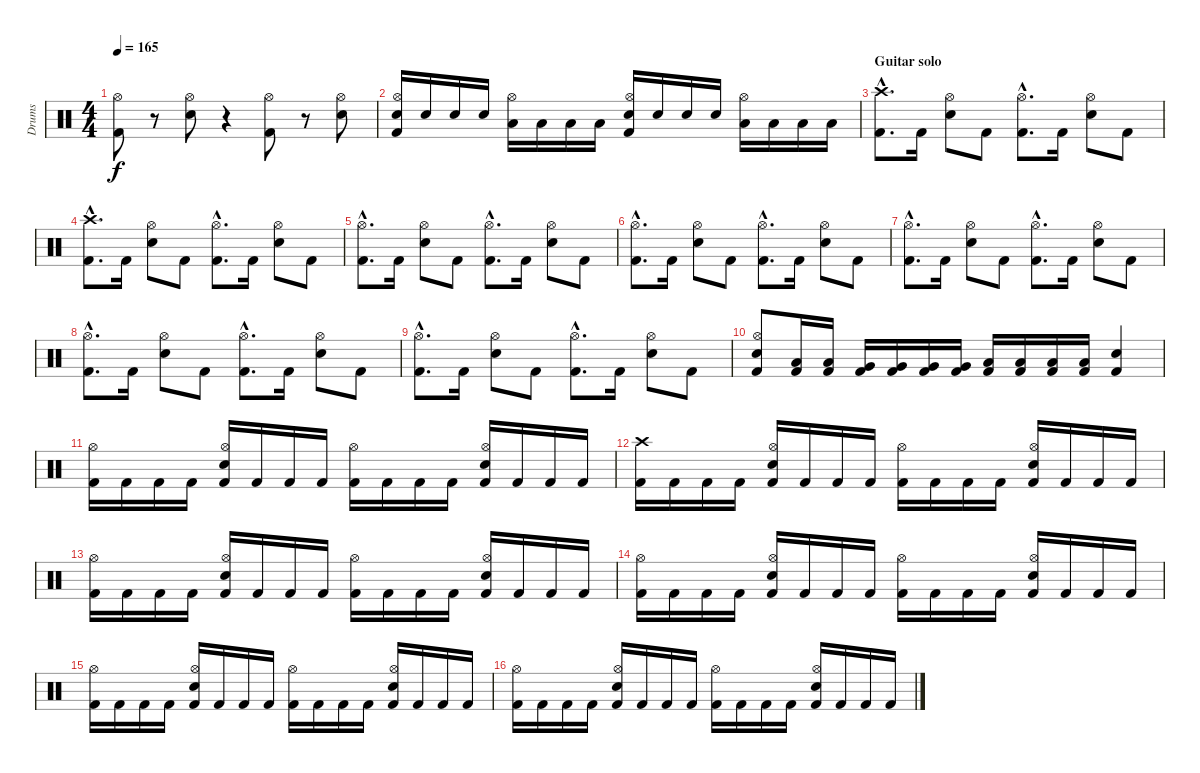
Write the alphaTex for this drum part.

\track ("Drums" "Drums") {instrument percussion}
\staff {score}
\articulation defaults
\ts (4 4)
\tempo 165
\clef neutral
\ks c
("Kick (hit) 2" "Hi-Hat (open)").8{dy f} r.8 ("Electric Snare (hit)" "Hi-Hat (open)").8 r.4 ("Kick (hit) 2" "Hi-Hat (open)").8 r.8 ("Electric Snare (hit)" "Hi-Hat (open)").8 |
("Kick (hit) 2" "Electric Snare (hit)" "Hi-Hat (open)").16 "Electric Snare (hit)".16 "Electric Snare (hit)".16 "Electric Snare (hit)".16 ("Low Tom (hit)" "Hi-Hat (open)").16 "Low Tom (hit)".16 "Low Tom (hit)".16 "Low Tom (hit)".16 ("Kick (hit) 2" "Electric Snare (hit)" "Hi-Hat (open)").16 "Electric Snare (hit)".16 "Electric Snare (hit)".16 "Electric Snare (hit)".16 ("Low Tom (hit)" "Hi-Hat (open)").16 "Low Tom (hit)".16 "Low Tom (hit)".16 "Low Tom (hit)".16 |
\section ("" "Guitar solo")
("Kick (hit) 2"{hac} "Crash high (hit)"{hac}).8{d} "Kick (hit) 2".16 ("Electric Snare (hit)" "Hi-Hat (open)").8 "Kick (hit) 2".8 ("Kick (hit) 2"{hac} "Hi-Hat (open)"{hac}).8{d} "Kick (hit) 2".16 ("Electric Snare (hit)" "Hi-Hat (open)").8 "Kick (hit) 2".8 |
("Kick (hit) 2"{hac} "Crash high (hit)"{hac}).8{d} "Kick (hit) 2".16 ("Electric Snare (hit)" "Hi-Hat (open)").8 "Kick (hit) 2".8 ("Kick (hit) 2"{hac} "Hi-Hat (open)"{hac}).8{d} "Kick (hit) 2".16 ("Electric Snare (hit)" "Hi-Hat (open)").8 "Kick (hit) 2".8 |
("Kick (hit) 2"{hac} "Hi-Hat (open)"{hac}).8{d} "Kick (hit) 2".16 ("Electric Snare (hit)" "Hi-Hat (open)").8 "Kick (hit) 2".8 ("Kick (hit) 2"{hac} "Hi-Hat (open)"{hac}).8{d} "Kick (hit) 2".16 ("Electric Snare (hit)" "Hi-Hat (open)").8 "Kick (hit) 2".8 |
("Kick (hit) 2"{hac} "Hi-Hat (open)"{hac}).8{d} "Kick (hit) 2".16 ("Electric Snare (hit)" "Hi-Hat (open)").8 "Kick (hit) 2".8 ("Kick (hit) 2"{hac} "Hi-Hat (open)"{hac}).8{d} "Kick (hit) 2".16 ("Electric Snare (hit)" "Hi-Hat (open)").8 "Kick (hit) 2".8 |
("Kick (hit) 2"{hac} "Hi-Hat (open)"{hac}).8{d} "Kick (hit) 2".16 ("Electric Snare (hit)" "Hi-Hat (open)").8 "Kick (hit) 2".8 ("Kick (hit) 2"{hac} "Hi-Hat (open)"{hac}).8{d} "Kick (hit) 2".16 ("Electric Snare (hit)" "Hi-Hat (open)").8 "Kick (hit) 2".8 |
("Kick (hit) 2"{hac} "Hi-Hat (open)"{hac}).8{d} "Kick (hit) 2".16 ("Electric Snare (hit)" "Hi-Hat (open)").8 "Kick (hit) 2".8 ("Kick (hit) 2"{hac} "Hi-Hat (open)"{hac}).8{d} "Kick (hit) 2".16 ("Electric Snare (hit)" "Hi-Hat (open)").8 "Kick (hit) 2".8 |
("Kick (hit) 2"{hac} "Hi-Hat (open)"{hac}).8{d} "Kick (hit) 2".16 ("Electric Snare (hit)" "Hi-Hat (open)").8 "Kick (hit) 2".8 ("Kick (hit) 2"{hac} "Hi-Hat (open)"{hac}).8{d} "Kick (hit) 2".16 ("Electric Snare (hit)" "Hi-Hat (open)").8 "Kick (hit) 2".8 |
("Kick (hit) 2" "Electric Snare (hit)" "Hi-Hat (open)").8 ("Kick (hit) 2" "Low Tom (hit)").16 ("Kick (hit) 2" "Low Tom (hit)").16 ("Kick (hit) 2" "Very Low Tom (hit)").16 ("Kick (hit) 2" "Very Low Tom (hit)").16 ("Kick (hit) 2" "Very Low Tom (hit)").16 ("Kick (hit) 2" "Very Low Tom (hit)").16 ("Kick (hit) 2" "Low Tom (hit)").16 ("Kick (hit) 2" "Low Tom (hit)").16 ("Kick (hit) 2" "Low Tom (hit)").16 ("Kick (hit) 2" "Low Tom (hit)").16 ("Kick (hit) 2" "Electric Snare (hit)").4 |
("Kick (hit) 2" "Hi-Hat (open)").16 "Kick (hit) 2".16 "Kick (hit) 2".16 "Kick (hit) 2".16 ("Kick (hit) 2" "Electric Snare (hit)" "Hi-Hat (open)").16 "Kick (hit) 2".16 "Kick (hit) 2".16 "Kick (hit) 2".16 ("Kick (hit) 2" "Hi-Hat (open)").16 "Kick (hit) 2".16 "Kick (hit) 2".16 "Kick (hit) 2".16 ("Kick (hit) 2" "Electric Snare (hit)" "Hi-Hat (open)").16 "Kick (hit) 2".16 "Kick (hit) 2".16 "Kick (hit) 2".16 |
("Kick (hit) 2" "Crash high (hit)").16 "Kick (hit) 2".16 "Kick (hit) 2".16 "Kick (hit) 2".16 ("Kick (hit) 2" "Electric Snare (hit)" "Hi-Hat (open)").16 "Kick (hit) 2".16 "Kick (hit) 2".16 "Kick (hit) 2".16 ("Kick (hit) 2" "Hi-Hat (open)").16 "Kick (hit) 2".16 "Kick (hit) 2".16 "Kick (hit) 2".16 ("Kick (hit) 2" "Electric Snare (hit)" "Hi-Hat (open)").16 "Kick (hit) 2".16 "Kick (hit) 2".16 "Kick (hit) 2".16 |
("Kick (hit) 2" "Hi-Hat (open)").16 "Kick (hit) 2".16 "Kick (hit) 2".16 "Kick (hit) 2".16 ("Kick (hit) 2" "Electric Snare (hit)" "Hi-Hat (open)").16 "Kick (hit) 2".16 "Kick (hit) 2".16 "Kick (hit) 2".16 ("Kick (hit) 2" "Hi-Hat (open)").16 "Kick (hit) 2".16 "Kick (hit) 2".16 "Kick (hit) 2".16 ("Kick (hit) 2" "Electric Snare (hit)" "Hi-Hat (open)").16 "Kick (hit) 2".16 "Kick (hit) 2".16 "Kick (hit) 2".16 |
("Kick (hit) 2" "Hi-Hat (open)").16 "Kick (hit) 2".16 "Kick (hit) 2".16 "Kick (hit) 2".16 ("Kick (hit) 2" "Electric Snare (hit)" "Hi-Hat (open)").16 "Kick (hit) 2".16 "Kick (hit) 2".16 "Kick (hit) 2".16 ("Kick (hit) 2" "Hi-Hat (open)").16 "Kick (hit) 2".16 "Kick (hit) 2".16 "Kick (hit) 2".16 ("Kick (hit) 2" "Electric Snare (hit)" "Hi-Hat (open)").16 "Kick (hit) 2".16 "Kick (hit) 2".16 "Kick (hit) 2".16 |
("Kick (hit) 2" "Hi-Hat (open)").16 "Kick (hit) 2".16 "Kick (hit) 2".16 "Kick (hit) 2".16 ("Kick (hit) 2" "Electric Snare (hit)" "Hi-Hat (open)").16 "Kick (hit) 2".16 "Kick (hit) 2".16 "Kick (hit) 2".16 ("Kick (hit) 2" "Hi-Hat (open)").16 "Kick (hit) 2".16 "Kick (hit) 2".16 "Kick (hit) 2".16 ("Kick (hit) 2" "Electric Snare (hit)" "Hi-Hat (open)").16 "Kick (hit) 2".16 "Kick (hit) 2".16 "Kick (hit) 2".16 |
("Kick (hit) 2" "Hi-Hat (open)").16 "Kick (hit) 2".16 "Kick (hit) 2".16 "Kick (hit) 2".16 ("Kick (hit) 2" "Electric Snare (hit)" "Hi-Hat (open)").16 "Kick (hit) 2".16 "Kick (hit) 2".16 "Kick (hit) 2".16 ("Kick (hit) 2" "Hi-Hat (open)").16 "Kick (hit) 2".16 "Kick (hit) 2".16 "Kick (hit) 2".16 ("Kick (hit) 2" "Electric Snare (hit)" "Hi-Hat (open)").16 "Kick (hit) 2".16 "Kick (hit) 2".16 "Kick (hit) 2".16
